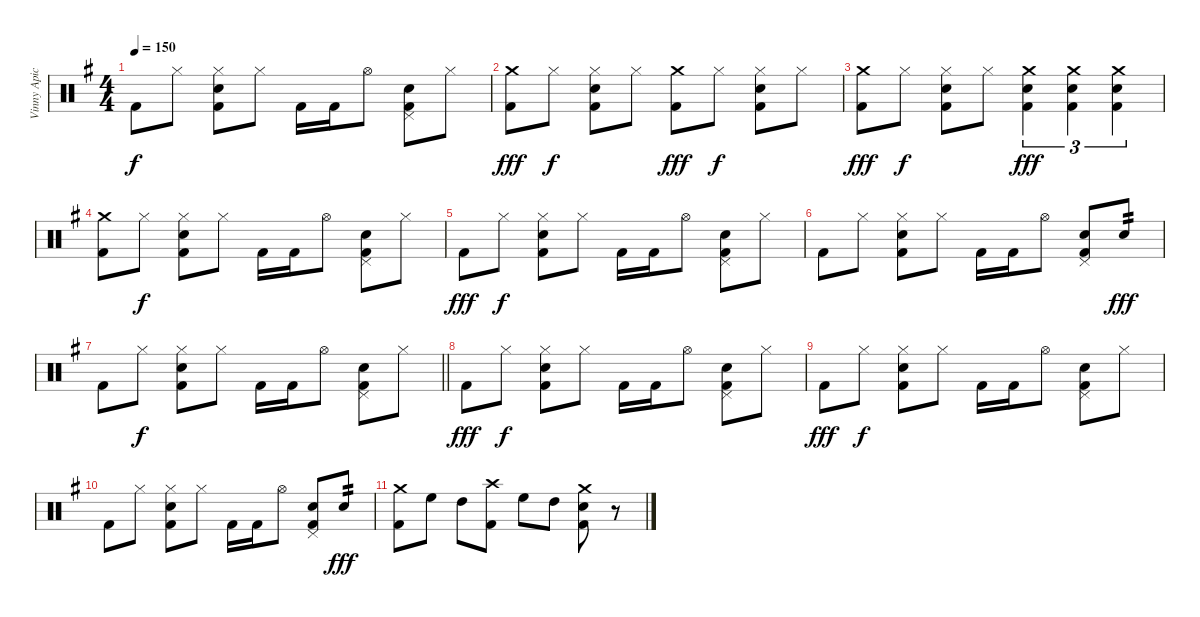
\track ("Vinny Apice" "Vinny Apic") {instrument percussion}
\staff {score}
\articulation defaults
\ts (4 4)
\tempo 150
\clef neutral
\ks g "Kick (hit) 2".8{dy f} "Hi-Hat (closed)".8
("Hi-Hat (closed)" "Snare (hit) 2" "Kick (hit) 2").8 "Hi-Hat (closed)".8 "Kick (hit) 2".16 "Kick (hit) 2".16 "Hi-Hat (open)".8 ("Pedal Hi-Hat (hit)" "Snare (hit) 2" "Kick (hit) 2").8 "Hi-Hat (closed)".8 |
("Crash medium (hit)" "Kick (hit) 2").8{dy fff} "Hi-Hat (closed)".8{dy f} ("Hi-Hat (closed)" "Snare (hit) 2" "Kick (hit) 2").8 "Hi-Hat (closed)".8 ("Crash medium (hit)" "Kick (hit) 2").8{dy fff} "Hi-Hat (closed)".8{dy f} ("Hi-Hat (closed)" "Snare (hit) 2" "Kick (hit) 2").8 "Hi-Hat (closed)".8 |
("Crash medium (hit)" "Kick (hit) 2").8{dy fff} "Hi-Hat (closed)".8{dy f} ("Hi-Hat (closed)" "Snare (hit) 2" "Kick (hit) 2").8 "Hi-Hat (closed)".8 ("Crash medium (hit)" "Snare (hit) 2" "Kick (hit) 2").4{tu (3 2) dy fff} ("Crash medium (hit)" "Snare (hit) 2" "Kick (hit) 2").4{tu (3 2)} ("Crash medium (hit)" "Snare (hit) 2" "Kick (hit) 2").4{tu (3 2)} |
("Crash medium (hit)" "Kick (hit) 2").8 "Hi-Hat (closed)".8{dy f} ("Hi-Hat (closed)" "Snare (hit) 2" "Kick (hit) 2").8 "Hi-Hat (closed)".8 "Kick (hit) 2".16 "Kick (hit) 2".16 "Hi-Hat (open)".8 ("Pedal Hi-Hat (hit)" "Snare (hit) 2" "Kick (hit) 2").8 "Hi-Hat (closed)".8 |
"Kick (hit) 2".8{dy fff} "Hi-Hat (closed)".8{dy f} ("Hi-Hat (closed)" "Snare (hit) 2" "Kick (hit) 2").8 "Hi-Hat (closed)".8 "Kick (hit) 2".16 "Kick (hit) 2".16 "Hi-Hat (open)".8 ("Pedal Hi-Hat (hit)" "Snare (hit) 2" "Kick (hit) 2").8 "Hi-Hat (closed)".8 |
"Kick (hit) 2".8 "Hi-Hat (closed)".8 ("Hi-Hat (closed)" "Snare (hit) 2" "Kick (hit) 2").8 "Hi-Hat (closed)".8 "Kick (hit) 2".16 "Kick (hit) 2".16 "Hi-Hat (open)".8 ("Pedal Hi-Hat (hit)" "Snare (hit) 2" "Kick (hit) 2").8 "Snare (hit) 2".8{tp 2 dy fff} |
\barLineRight lightlight "Kick (hit) 2".8 "Hi-Hat (closed)".8{dy f}
("Hi-Hat (closed)" "Snare (hit) 2" "Kick (hit) 2").8 "Hi-Hat (closed)".8 "Kick (hit) 2".16 "Kick (hit) 2".16 "Hi-Hat (open)".8 ("Pedal Hi-Hat (hit)" "Snare (hit) 2" "Kick (hit) 2").8 "Hi-Hat (closed)".8 |
"Kick (hit) 2".8{dy fff} "Hi-Hat (closed)".8{dy f} ("Hi-Hat (closed)" "Snare (hit) 2" "Kick (hit) 2").8 "Hi-Hat (closed)".8 "Kick (hit) 2".16 "Kick (hit) 2".16 "Hi-Hat (open)".8 ("Pedal Hi-Hat (hit)" "Snare (hit) 2" "Kick (hit) 2").8 "Hi-Hat (closed)".8 |
"Kick (hit) 2".8{dy fff} "Hi-Hat (closed)".8{dy f} ("Hi-Hat (closed)" "Snare (hit) 2" "Kick (hit) 2").8 "Hi-Hat (closed)".8 "Kick (hit) 2".16 "Kick (hit) 2".16 "Hi-Hat (open)".8 ("Pedal Hi-Hat (hit)" "Snare (hit) 2" "Kick (hit) 2").8 "Hi-Hat (closed)".8 |
"Kick (hit) 2".8 "Hi-Hat (closed)".8 ("Hi-Hat (closed)" "Snare (hit) 2" "Kick (hit) 2").8 "Hi-Hat (closed)".8 "Kick (hit) 2".16 "Kick (hit) 2".16 "Hi-Hat (open)".8 ("Pedal Hi-Hat (hit)" "Snare (hit) 2" "Kick (hit) 2").8 "Snare (hit) 2".8{tp 2 dy fff} |
("Crash medium (hit)" "Kick (hit) 2").8 "High Floor Tom (hit)".8 "High Tom (hit)".8 ("Crash high (hit)" "Kick (hit) 2").8 "High Floor Tom (hit)".8 "High Tom (hit)".8 ("Crash medium (hit)" "Snare (hit) 2" "Kick (hit) 2").8 r.8
